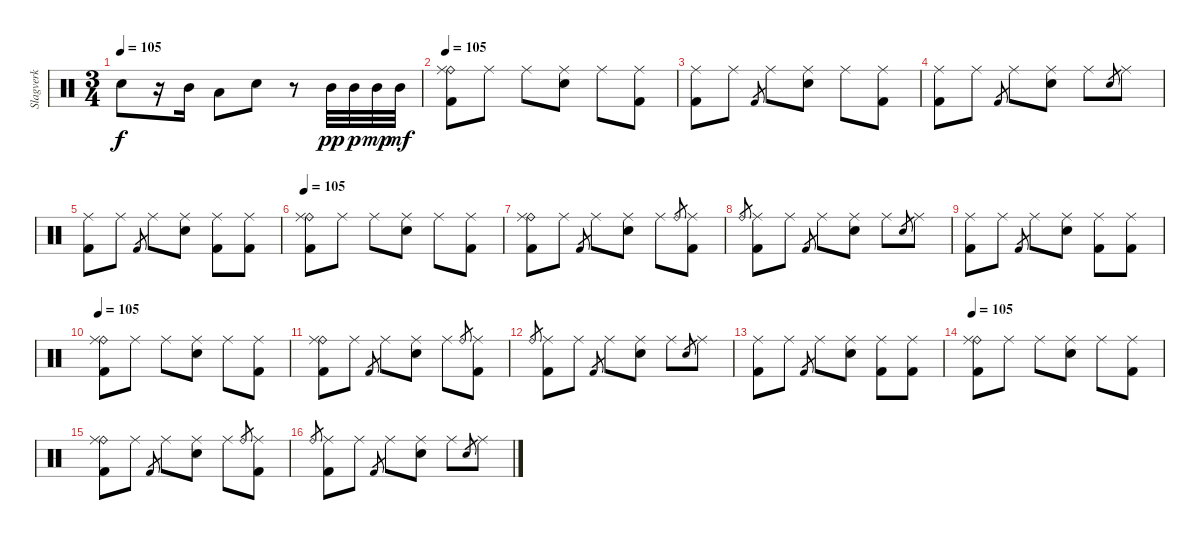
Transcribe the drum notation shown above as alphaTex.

\track ("Slagverk" "Slagverk") {instrument percussion}
\staff {score}
\articulation defaults
\ts (3 4)
\tempo 105
\clef neutral
\ks c "Electric Snare (hit)".8{dy f}
r.16 "Mid Tom (hit)".16 "Low Tom (hit)".8 "Electric Snare (hit)".8 r.8 "Mid Tom (hit)".32{dy pp} "Mid Tom (hit)".32{dy p} "Mid Tom (hit)".32{dy mp} "Mid Tom (hit)".32{dy mf} |
\tempo 105
("Ride (bell)" "Ride (middle)" "Kick (hit) 2").8 "Ride (middle)".8 "Ride (middle)".8 ("Ride (middle)" "Electric Snare (hit)").8 "Ride (middle)".8 ("Ride (middle)" "Kick (hit) 2").8 |
("Ride (middle)" "Kick (hit) 2").8 "Ride (middle)".8 "Kick (hit) 2".8{gr} "Ride (middle)".8 ("Ride (middle)" "Electric Snare (hit)").8 "Ride (middle)".8 ("Ride (middle)" "Kick (hit) 2").8 |
("Ride (middle)" "Kick (hit) 2").8 "Ride (middle)".8 "Kick (hit) 2".8{gr} "Ride (middle)".8 ("Ride (middle)" "Electric Snare (hit)").8 "Ride (middle)".8 "Electric Snare (hit)".8{gr} "Ride (middle)".8 |
("Ride (middle)" "Kick (hit) 2").8 "Ride (middle)".8 "Kick (hit) 2".8{gr} "Ride (middle)".8 ("Ride (middle)" "Electric Snare (hit)").8 ("Ride (middle)" "Kick (hit) 2").8 ("Ride (middle)" "Kick (hit) 2").8 |
\tempo 105
("Ride (bell)" "Ride (middle)" "Kick (hit) 2").8 "Ride (middle)".8 "Ride (middle)".8 ("Ride (middle)" "Electric Snare (hit)").8 "Ride (middle)".8 ("Ride (middle)" "Kick (hit) 2").8 |
("Ride (bell)" "Ride (middle)" "Kick (hit) 2").8 "Ride (middle)".8 "Kick (hit) 2".8{gr} "Ride (middle)".8 ("Ride (middle)" "Electric Snare (hit)").8 "Ride (middle)".8 "Ride (bell)".8{gr} ("Ride (middle)" "Kick (hit) 2").8 |
"Ride (bell)".8{gr} ("Ride (middle)" "Kick (hit) 2").8 "Ride (middle)".8 "Kick (hit) 2".8{gr} "Ride (middle)".8 ("Ride (middle)" "Electric Snare (hit)").8 "Ride (middle)".8 "Electric Snare (hit)".8{gr} "Ride (middle)".8 |
("Ride (middle)" "Kick (hit) 2").8 "Ride (middle)".8 "Kick (hit) 2".8{gr} "Ride (middle)".8 ("Ride (middle)" "Electric Snare (hit)").8 ("Ride (middle)" "Kick (hit) 2").8 ("Ride (middle)" "Kick (hit) 2").8 |
\tempo 105
("Ride (bell)" "Ride (middle)" "Kick (hit) 2").8 "Ride (middle)".8 "Ride (middle)".8 ("Ride (middle)" "Electric Snare (hit)").8 "Ride (middle)".8 ("Ride (middle)" "Kick (hit) 2").8 |
("Ride (bell)" "Ride (middle)" "Kick (hit) 2").8 "Ride (middle)".8 "Kick (hit) 2".8{gr} "Ride (middle)".8 ("Ride (middle)" "Electric Snare (hit)").8 "Ride (middle)".8 "Ride (bell)".8{gr} ("Ride (middle)" "Kick (hit) 2").8 |
"Ride (bell)".8{gr} ("Ride (middle)" "Kick (hit) 2").8 "Ride (middle)".8 "Kick (hit) 2".8{gr} "Ride (middle)".8 ("Ride (middle)" "Electric Snare (hit)").8 "Ride (middle)".8 "Electric Snare (hit)".8{gr} "Ride (middle)".8 |
("Ride (middle)" "Kick (hit) 2").8 "Ride (middle)".8 "Kick (hit) 2".8{gr} "Ride (middle)".8 ("Ride (middle)" "Electric Snare (hit)").8 ("Ride (middle)" "Kick (hit) 2").8 ("Ride (middle)" "Kick (hit) 2").8 |
\tempo 105
("Ride (bell)" "Ride (middle)" "Kick (hit) 2").8 "Ride (middle)".8 "Ride (middle)".8 ("Ride (middle)" "Electric Snare (hit)").8 "Ride (middle)".8 ("Ride (middle)" "Kick (hit) 2").8 |
("Ride (bell)" "Ride (middle)" "Kick (hit) 2").8 "Ride (middle)".8 "Kick (hit) 2".8{gr} "Ride (middle)".8 ("Ride (middle)" "Electric Snare (hit)").8 "Ride (middle)".8 "Ride (bell)".8{gr} ("Ride (middle)" "Kick (hit) 2").8 |
"Ride (bell)".8{gr} ("Ride (middle)" "Kick (hit) 2").8 "Ride (middle)".8 "Kick (hit) 2".8{gr} "Ride (middle)".8 ("Ride (middle)" "Electric Snare (hit)").8 "Ride (middle)".8 "Electric Snare (hit)".8{gr} "Ride (middle)".8
